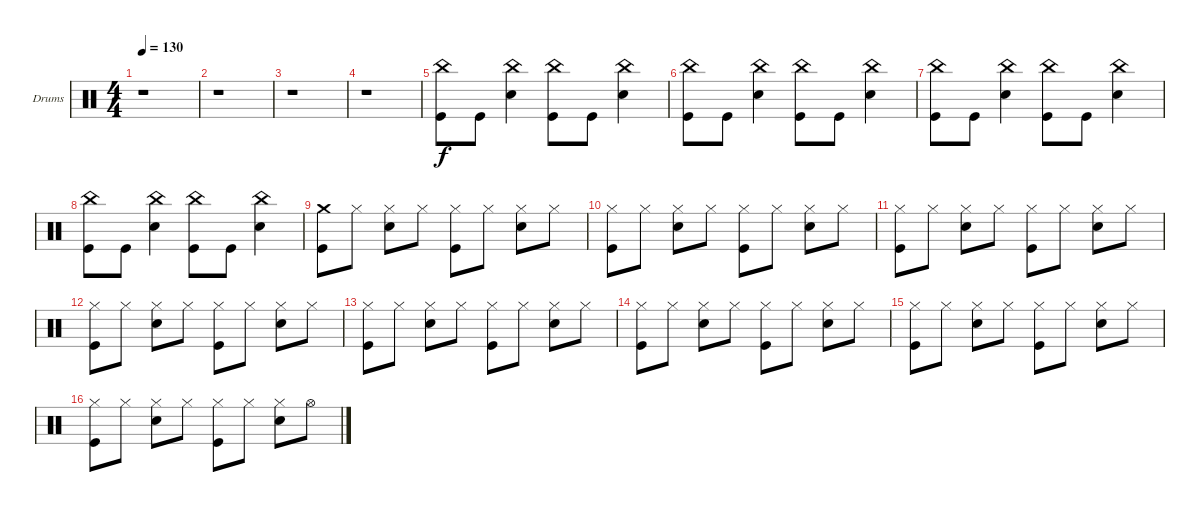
\defaultSystemsLayout 4
\bracketExtendMode groupsimilarinstruments
\firstSystemTrackNameOrientation horizontal
\otherSystemsTrackNameOrientation horizontal
\track ("Drumkit" "Drums") {instrument percussion}
\staff {score}
\articulation defaults
\ts (4 4)
\tempo 130
\clef neutral
\scale
0.474178
\ks c
r.1{dy f} |
\scale
0.262911 r.1 |
\scale
0.262911 r.1 |
\scale
0.333333 r.1 |
\scale
0.333333 ("China (hit)" "Kick (hit)").8 "Kick (hit)".8 ("China (hit)" "Snare (hit) 2").4 ("China (hit)" "Kick (hit)").8 "Kick (hit)".8 ("China (hit)" "Snare (hit) 2").4 |
\scale
0.333333 ("China (hit)" "Kick (hit)").8 "Kick (hit)".8 ("China (hit)" "Snare (hit) 2").4 ("China (hit)" "Kick (hit)").8 "Kick (hit)".8 ("China (hit)" "Snare (hit) 2").4 |
\scale
0.333333 ("China (hit)" "Kick (hit)").8 "Kick (hit)".8 ("China (hit)" "Snare (hit) 2").4 ("China (hit)" "Kick (hit)").8 "Kick (hit)".8 ("China (hit)" "Snare (hit) 2").4 |
\scale
0.333333 ("China (hit)" "Kick (hit)").8 "Kick (hit)".8 ("China (hit)" "Snare (hit) 2").4 ("China (hit)" "Kick (hit)").8 "Kick (hit)".8 ("China (hit)" "Snare (hit) 2").4 |
\scale
0.333333 ("Crash medium (hit)" "Kick (hit)").8 "Hi-Hat (closed)".8 ("Hi-Hat (closed)" "Snare (hit) 2").8 "Hi-Hat (closed)".8 ("Hi-Hat (closed)" "Kick (hit)").8 "Hi-Hat (closed)".8 ("Hi-Hat (closed)" "Snare (hit) 2").8 "Hi-Hat (closed)".8 |
\scale
0.333333 ("Hi-Hat (closed)" "Kick (hit)").8 "Hi-Hat (closed)".8 ("Hi-Hat (closed)" "Snare (hit) 2").8 "Hi-Hat (closed)".8 ("Hi-Hat (closed)" "Kick (hit)").8 "Hi-Hat (closed)".8 ("Hi-Hat (closed)" "Snare (hit) 2").8 "Hi-Hat (closed)".8 |
\scale
0.333333 ("Hi-Hat (closed)" "Kick (hit)").8 "Hi-Hat (closed)".8 ("Hi-Hat (closed)" "Snare (hit) 2").8 "Hi-Hat (closed)".8 ("Hi-Hat (closed)" "Kick (hit)").8 "Hi-Hat (closed)".8 ("Hi-Hat (closed)" "Snare (hit) 2").8 "Hi-Hat (closed)".8 |
\scale
0.333333 ("Hi-Hat (closed)" "Kick (hit)").8 "Hi-Hat (closed)".8 ("Hi-Hat (closed)" "Snare (hit) 2").8 "Hi-Hat (closed)".8 ("Hi-Hat (closed)" "Kick (hit)").8 "Hi-Hat (closed)".8 ("Hi-Hat (closed)" "Snare (hit) 2").8 "Hi-Hat (closed)".8 |
\scale
0.333333 ("Hi-Hat (closed)" "Kick (hit)").8 "Hi-Hat (closed)".8 ("Hi-Hat (closed)" "Snare (hit) 2").8 "Hi-Hat (closed)".8 ("Hi-Hat (closed)" "Kick (hit)").8 "Hi-Hat (closed)".8 ("Hi-Hat (closed)" "Snare (hit) 2").8 "Hi-Hat (closed)".8 |
\scale
0.333333 ("Hi-Hat (closed)" "Kick (hit)").8 "Hi-Hat (closed)".8 ("Hi-Hat (closed)" "Snare (hit) 2").8 "Hi-Hat (closed)".8 ("Hi-Hat (closed)" "Kick (hit)").8 "Hi-Hat (closed)".8 ("Hi-Hat (closed)" "Snare (hit) 2").8 "Hi-Hat (closed)".8 |
\scale
0.333333 ("Hi-Hat (closed)" "Kick (hit)").8 "Hi-Hat (closed)".8 ("Hi-Hat (closed)" "Snare (hit) 2").8 "Hi-Hat (closed)".8 ("Hi-Hat (closed)" "Kick (hit)").8 "Hi-Hat (closed)".8 ("Hi-Hat (closed)" "Snare (hit) 2").8 "Hi-Hat (closed)".8 |
\scale
0.333333 ("Hi-Hat (closed)" "Kick (hit)").8 "Hi-Hat (closed)".8 ("Hi-Hat (closed)" "Snare (hit) 2").8 "Hi-Hat (closed)".8 ("Hi-Hat (closed)" "Kick (hit)").8 "Hi-Hat (closed)".8 ("Hi-Hat (closed)" "Snare (hit) 2").8 "Hi-Hat (open)".8
